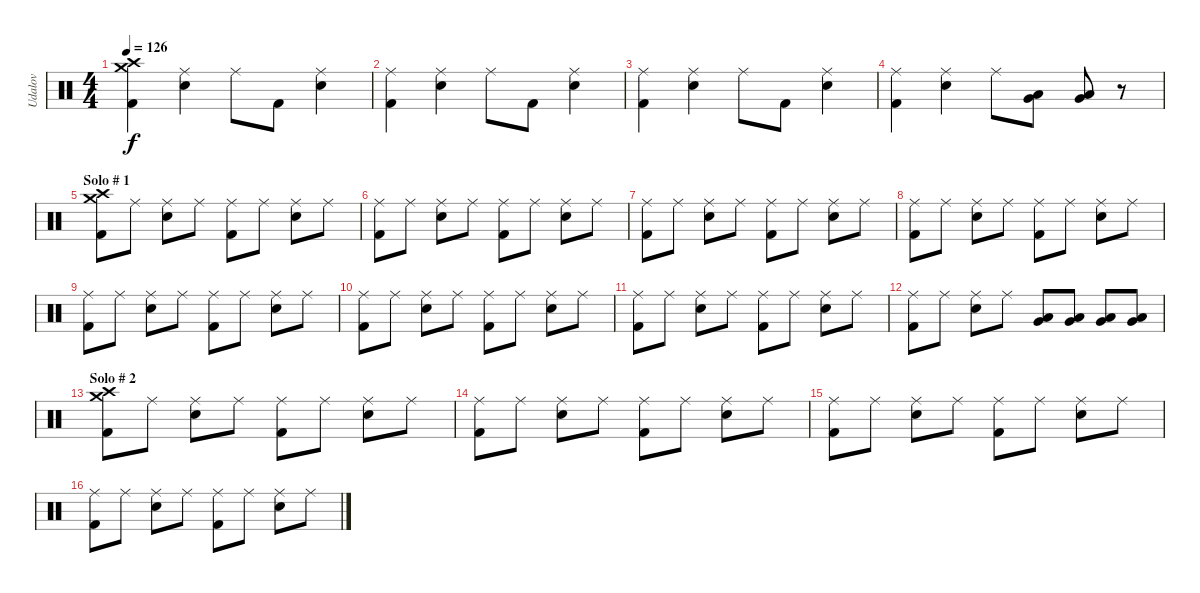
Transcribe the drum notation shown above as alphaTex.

\track ("Udalov" "Udalov") {instrument percussion}
\staff {score}
\articulation defaults
\ts (4 4)
\tempo 126
\clef neutral
\ks c
("Kick (hit) 2" "Crash high (hit)" "Crash medium (hit)").4{dy f} ("Snare (hit) 2" "Ride (middle)").4 "Ride (middle)".8 "Kick (hit) 2".8 ("Snare (hit) 2" "Ride (middle)").4 |
("Kick (hit) 2" "Ride (middle)").4 ("Snare (hit) 2" "Ride (middle)").4 "Ride (middle)".8 "Kick (hit) 2".8 ("Snare (hit) 2" "Ride (middle)").4 |
("Kick (hit) 2" "Ride (middle)").4 ("Snare (hit) 2" "Ride (middle)").4 "Ride (middle)".8 "Kick (hit) 2".8 ("Snare (hit) 2" "Ride (middle)").4 |
("Kick (hit) 2" "Ride (middle)").4 ("Snare (hit) 2" "Ride (middle)").4 "Ride (middle)".8 ("Low Tom (hit)" "Very Low Tom (hit)").8 ("Low Tom (hit)" "Very Low Tom (hit)").8 r.8 |
\section ("" "Solo # 1")
("Kick (hit) 2" "Crash high (hit)" "Crash medium (hit)").8 "Ride (middle)".8 ("Snare (hit) 2" "Ride (middle)").8 "Ride (middle)".8 ("Kick (hit) 2" "Ride (middle)").8 "Ride (middle)".8 ("Snare (hit) 2" "Ride (middle)").8 "Ride (middle)".8 |
("Kick (hit) 2" "Ride (middle)").8 "Ride (middle)".8 ("Snare (hit) 2" "Ride (middle)").8 "Ride (middle)".8 ("Kick (hit) 2" "Ride (middle)").8 "Ride (middle)".8 ("Snare (hit) 2" "Ride (middle)").8 "Ride (middle)".8 |
("Kick (hit) 2" "Ride (middle)").8 "Ride (middle)".8 ("Snare (hit) 2" "Ride (middle)").8 "Ride (middle)".8 ("Kick (hit) 2" "Ride (middle)").8 "Ride (middle)".8 ("Snare (hit) 2" "Ride (middle)").8 "Ride (middle)".8 |
("Kick (hit) 2" "Ride (middle)").8 "Ride (middle)".8 ("Snare (hit) 2" "Ride (middle)").8 "Ride (middle)".8 ("Kick (hit) 2" "Ride (middle)").8 "Ride (middle)".8 ("Snare (hit) 2" "Ride (middle)").8 "Ride (middle)".8 |
("Kick (hit) 2" "Ride (middle)").8 "Ride (middle)".8 ("Snare (hit) 2" "Ride (middle)").8 "Ride (middle)".8 ("Kick (hit) 2" "Ride (middle)").8 "Ride (middle)".8 ("Snare (hit) 2" "Ride (middle)").8 "Ride (middle)".8 |
("Kick (hit) 2" "Ride (middle)").8 "Ride (middle)".8 ("Snare (hit) 2" "Ride (middle)").8 "Ride (middle)".8 ("Kick (hit) 2" "Ride (middle)").8 "Ride (middle)".8 ("Snare (hit) 2" "Ride (middle)").8 "Ride (middle)".8 |
("Kick (hit) 2" "Ride (middle)").8 "Ride (middle)".8 ("Snare (hit) 2" "Ride (middle)").8 "Ride (middle)".8 ("Kick (hit) 2" "Ride (middle)").8 "Ride (middle)".8 ("Snare (hit) 2" "Ride (middle)").8 "Ride (middle)".8 |
("Kick (hit) 2" "Ride (middle)").8 "Ride (middle)".8 ("Snare (hit) 2" "Ride (middle)").8 "Ride (middle)".8 ("Low Tom (hit)" "Very Low Tom (hit)").8 ("Low Tom (hit)" "Very Low Tom (hit)").8 ("Low Tom (hit)" "Very Low Tom (hit)").8 ("Low Tom (hit)" "Very Low Tom (hit)").8 |
\section ("" "Solo # 2")
("Kick (hit) 2" "Crash high (hit)" "Crash medium (hit)").8 "Ride (middle)".8 ("Snare (hit) 2" "Ride (middle)").8 "Ride (middle)".8 ("Kick (hit) 2" "Ride (middle)").8 "Ride (middle)".8 ("Snare (hit) 2" "Ride (middle)").8 "Ride (middle)".8 |
("Kick (hit) 2" "Ride (middle)").8 "Ride (middle)".8 ("Snare (hit) 2" "Ride (middle)").8 "Ride (middle)".8 ("Kick (hit) 2" "Ride (middle)").8 "Ride (middle)".8 ("Snare (hit) 2" "Ride (middle)").8 "Ride (middle)".8 |
("Kick (hit) 2" "Ride (middle)").8 "Ride (middle)".8 ("Snare (hit) 2" "Ride (middle)").8 "Ride (middle)".8 ("Kick (hit) 2" "Ride (middle)").8 "Ride (middle)".8 ("Snare (hit) 2" "Ride (middle)").8 "Ride (middle)".8 |
("Kick (hit) 2" "Ride (middle)").8 "Ride (middle)".8 ("Snare (hit) 2" "Ride (middle)").8 "Ride (middle)".8 ("Kick (hit) 2" "Ride (middle)").8 "Ride (middle)".8 ("Snare (hit) 2" "Ride (middle)").8 "Ride (middle)".8
